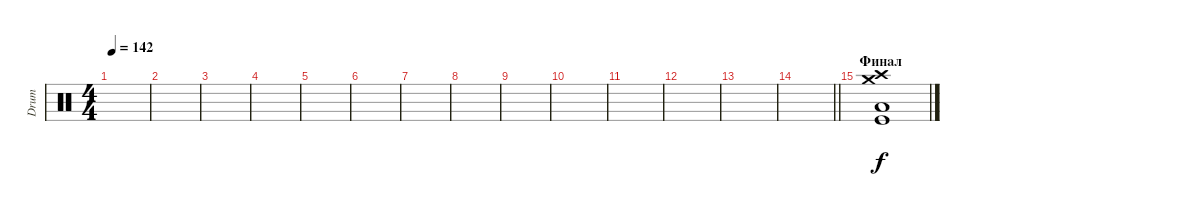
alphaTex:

\track ("Drum" "Drum") {instrument percussion}
\staff {score}
\articulation defaults
\ts (4 4)
\tempo 142
\clef neutral
\ks c
|
|
|
|
|
|
|
|
|
|
|
|
|
\barLineRight lightlight
|
\section ("" "Финал")
("Crash high (hit)" "Crash medium (hit)" "Low Floor Tom (hit)" "Kick (hit)").1
